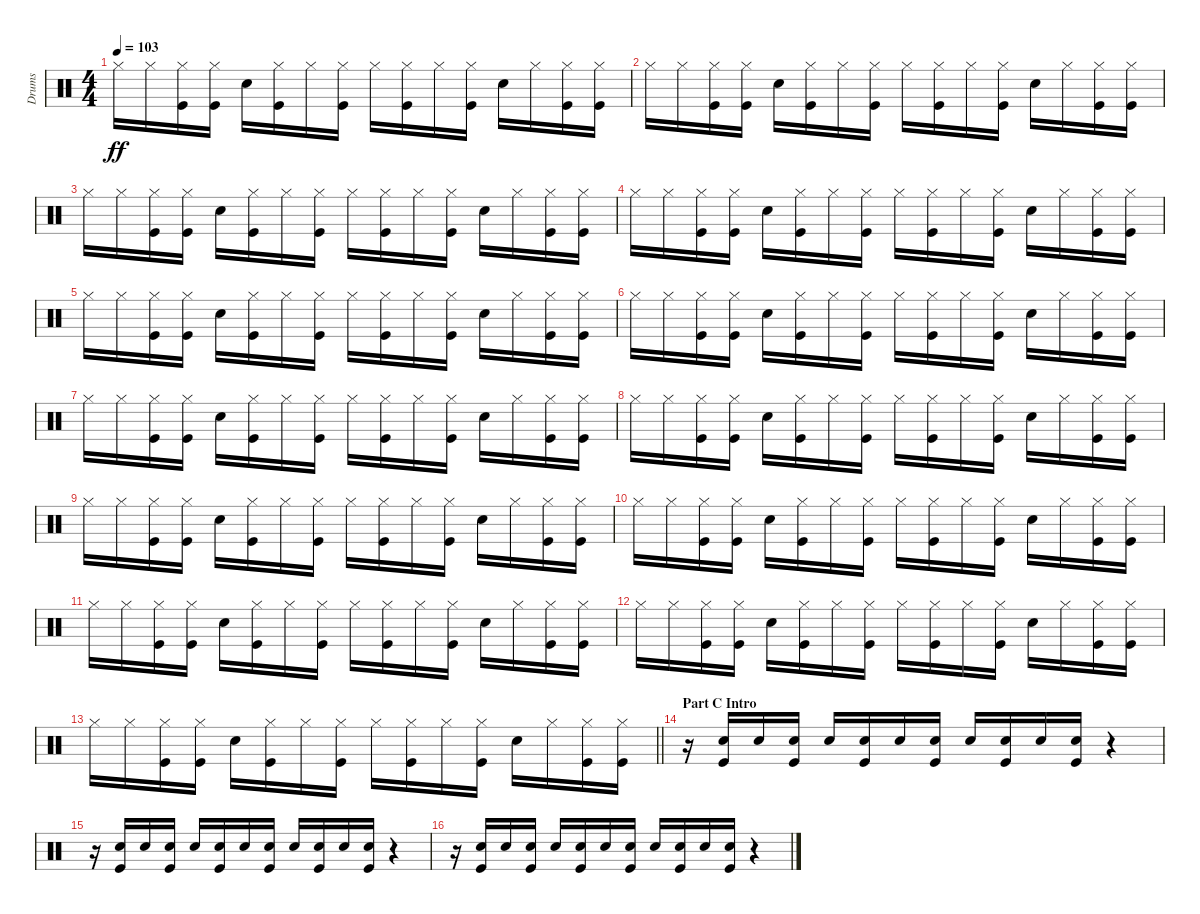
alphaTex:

\track ("Drums" "Drums") {instrument percussion}
\staff {score}
\articulation defaults
\ts (4 4)
\tempo 103
\clef neutral
\ks c "Hi-Hat (closed)".16{dy ff} "Hi-Hat (closed)".16
("Hi-Hat (closed)" "Kick (hit)").16 ("Hi-Hat (closed)" "Kick (hit)").16 "Electric Snare (hit)".16 ("Hi-Hat (closed)" "Kick (hit)").16 "Hi-Hat (closed)".16 ("Hi-Hat (closed)" "Kick (hit)").16 "Hi-Hat (closed)".16 ("Hi-Hat (closed)" "Kick (hit)").16 "Hi-Hat (closed)".16 ("Hi-Hat (closed)" "Kick (hit)").16 "Electric Snare (hit)".16 "Hi-Hat (closed)".16 ("Hi-Hat (closed)" "Kick (hit)").16 ("Hi-Hat (closed)" "Kick (hit)").16 |
"Hi-Hat (closed)".16 "Hi-Hat (closed)".16 ("Hi-Hat (closed)" "Kick (hit)").16 ("Hi-Hat (closed)" "Kick (hit)").16 "Electric Snare (hit)".16 ("Hi-Hat (closed)" "Kick (hit)").16 "Hi-Hat (closed)".16 ("Hi-Hat (closed)" "Kick (hit)").16 "Hi-Hat (closed)".16 ("Hi-Hat (closed)" "Kick (hit)").16 "Hi-Hat (closed)".16 ("Hi-Hat (closed)" "Kick (hit)").16 "Electric Snare (hit)".16 "Hi-Hat (closed)".16 ("Hi-Hat (closed)" "Kick (hit)").16 ("Hi-Hat (closed)" "Kick (hit)").16 |
"Hi-Hat (closed)".16 "Hi-Hat (closed)".16 ("Hi-Hat (closed)" "Kick (hit)").16 ("Hi-Hat (closed)" "Kick (hit)").16 "Electric Snare (hit)".16 ("Hi-Hat (closed)" "Kick (hit)").16 "Hi-Hat (closed)".16 ("Hi-Hat (closed)" "Kick (hit)").16 "Hi-Hat (closed)".16 ("Hi-Hat (closed)" "Kick (hit)").16 "Hi-Hat (closed)".16 ("Hi-Hat (closed)" "Kick (hit)").16 "Electric Snare (hit)".16 "Hi-Hat (closed)".16 ("Hi-Hat (closed)" "Kick (hit)").16 ("Hi-Hat (closed)" "Kick (hit)").16 |
"Hi-Hat (closed)".16 "Hi-Hat (closed)".16 ("Hi-Hat (closed)" "Kick (hit)").16 ("Hi-Hat (closed)" "Kick (hit)").16 "Electric Snare (hit)".16 ("Hi-Hat (closed)" "Kick (hit)").16 "Hi-Hat (closed)".16 ("Hi-Hat (closed)" "Kick (hit)").16 "Hi-Hat (closed)".16 ("Hi-Hat (closed)" "Kick (hit)").16 "Hi-Hat (closed)".16 ("Hi-Hat (closed)" "Kick (hit)").16 "Electric Snare (hit)".16 "Hi-Hat (closed)".16 ("Hi-Hat (closed)" "Kick (hit)").16 ("Hi-Hat (closed)" "Kick (hit)").16 |
"Hi-Hat (closed)".16 "Hi-Hat (closed)".16 ("Hi-Hat (closed)" "Kick (hit)").16 ("Hi-Hat (closed)" "Kick (hit)").16 "Electric Snare (hit)".16 ("Hi-Hat (closed)" "Kick (hit)").16 "Hi-Hat (closed)".16 ("Hi-Hat (closed)" "Kick (hit)").16 "Hi-Hat (closed)".16 ("Hi-Hat (closed)" "Kick (hit)").16 "Hi-Hat (closed)".16 ("Hi-Hat (closed)" "Kick (hit)").16 "Electric Snare (hit)".16 "Hi-Hat (closed)".16 ("Hi-Hat (closed)" "Kick (hit)").16 ("Hi-Hat (closed)" "Kick (hit)").16 |
"Hi-Hat (closed)".16 "Hi-Hat (closed)".16 ("Hi-Hat (closed)" "Kick (hit)").16 ("Hi-Hat (closed)" "Kick (hit)").16 "Electric Snare (hit)".16 ("Hi-Hat (closed)" "Kick (hit)").16 "Hi-Hat (closed)".16 ("Hi-Hat (closed)" "Kick (hit)").16 "Hi-Hat (closed)".16 ("Hi-Hat (closed)" "Kick (hit)").16 "Hi-Hat (closed)".16 ("Hi-Hat (closed)" "Kick (hit)").16 "Electric Snare (hit)".16 "Hi-Hat (closed)".16 ("Hi-Hat (closed)" "Kick (hit)").16 ("Hi-Hat (closed)" "Kick (hit)").16 |
"Hi-Hat (closed)".16 "Hi-Hat (closed)".16 ("Hi-Hat (closed)" "Kick (hit)").16 ("Hi-Hat (closed)" "Kick (hit)").16 "Electric Snare (hit)".16 ("Hi-Hat (closed)" "Kick (hit)").16 "Hi-Hat (closed)".16 ("Hi-Hat (closed)" "Kick (hit)").16 "Hi-Hat (closed)".16 ("Hi-Hat (closed)" "Kick (hit)").16 "Hi-Hat (closed)".16 ("Hi-Hat (closed)" "Kick (hit)").16 "Electric Snare (hit)".16 "Hi-Hat (closed)".16 ("Hi-Hat (closed)" "Kick (hit)").16 ("Hi-Hat (closed)" "Kick (hit)").16 |
"Hi-Hat (closed)".16 "Hi-Hat (closed)".16 ("Hi-Hat (closed)" "Kick (hit)").16 ("Hi-Hat (closed)" "Kick (hit)").16 "Electric Snare (hit)".16 ("Hi-Hat (closed)" "Kick (hit)").16 "Hi-Hat (closed)".16 ("Hi-Hat (closed)" "Kick (hit)").16 "Hi-Hat (closed)".16 ("Hi-Hat (closed)" "Kick (hit)").16 "Hi-Hat (closed)".16 ("Hi-Hat (closed)" "Kick (hit)").16 "Electric Snare (hit)".16 "Hi-Hat (closed)".16 ("Hi-Hat (closed)" "Kick (hit)").16 ("Hi-Hat (closed)" "Kick (hit)").16 |
"Hi-Hat (closed)".16 "Hi-Hat (closed)".16 ("Hi-Hat (closed)" "Kick (hit)").16 ("Hi-Hat (closed)" "Kick (hit)").16 "Electric Snare (hit)".16 ("Hi-Hat (closed)" "Kick (hit)").16 "Hi-Hat (closed)".16 ("Hi-Hat (closed)" "Kick (hit)").16 "Hi-Hat (closed)".16 ("Hi-Hat (closed)" "Kick (hit)").16 "Hi-Hat (closed)".16 ("Hi-Hat (closed)" "Kick (hit)").16 "Electric Snare (hit)".16 "Hi-Hat (closed)".16 ("Hi-Hat (closed)" "Kick (hit)").16 ("Hi-Hat (closed)" "Kick (hit)").16 |
"Hi-Hat (closed)".16 "Hi-Hat (closed)".16 ("Hi-Hat (closed)" "Kick (hit)").16 ("Hi-Hat (closed)" "Kick (hit)").16 "Electric Snare (hit)".16 ("Hi-Hat (closed)" "Kick (hit)").16 "Hi-Hat (closed)".16 ("Hi-Hat (closed)" "Kick (hit)").16 "Hi-Hat (closed)".16 ("Hi-Hat (closed)" "Kick (hit)").16 "Hi-Hat (closed)".16 ("Hi-Hat (closed)" "Kick (hit)").16 "Electric Snare (hit)".16 "Hi-Hat (closed)".16 ("Hi-Hat (closed)" "Kick (hit)").16 ("Hi-Hat (closed)" "Kick (hit)").16 |
"Hi-Hat (closed)".16 "Hi-Hat (closed)".16 ("Hi-Hat (closed)" "Kick (hit)").16 ("Hi-Hat (closed)" "Kick (hit)").16 "Electric Snare (hit)".16 ("Hi-Hat (closed)" "Kick (hit)").16 "Hi-Hat (closed)".16 ("Hi-Hat (closed)" "Kick (hit)").16 "Hi-Hat (closed)".16 ("Hi-Hat (closed)" "Kick (hit)").16 "Hi-Hat (closed)".16 ("Hi-Hat (closed)" "Kick (hit)").16 "Electric Snare (hit)".16 "Hi-Hat (closed)".16 ("Hi-Hat (closed)" "Kick (hit)").16 ("Hi-Hat (closed)" "Kick (hit)").16 |
"Hi-Hat (closed)".16 "Hi-Hat (closed)".16 ("Hi-Hat (closed)" "Kick (hit)").16 ("Hi-Hat (closed)" "Kick (hit)").16 "Electric Snare (hit)".16 ("Hi-Hat (closed)" "Kick (hit)").16 "Hi-Hat (closed)".16 ("Hi-Hat (closed)" "Kick (hit)").16 "Hi-Hat (closed)".16 ("Hi-Hat (closed)" "Kick (hit)").16 "Hi-Hat (closed)".16 ("Hi-Hat (closed)" "Kick (hit)").16 "Electric Snare (hit)".16 "Hi-Hat (closed)".16 ("Hi-Hat (closed)" "Kick (hit)").16 ("Hi-Hat (closed)" "Kick (hit)").16 |
\barLineRight lightlight "Hi-Hat (closed)".16 "Hi-Hat (closed)".16
("Hi-Hat (closed)" "Kick (hit)").16 ("Hi-Hat (closed)" "Kick (hit)").16 "Electric Snare (hit)".16 ("Hi-Hat (closed)" "Kick (hit)").16 "Hi-Hat (closed)".16 ("Hi-Hat (closed)" "Kick (hit)").16 "Hi-Hat (closed)".16 ("Hi-Hat (closed)" "Kick (hit)").16 "Hi-Hat (closed)".16 ("Hi-Hat (closed)" "Kick (hit)").16 "Electric Snare (hit)".16 "Hi-Hat (closed)".16 ("Hi-Hat (closed)" "Kick (hit)").16 ("Hi-Hat (closed)" "Kick (hit)").16 |
\section ("" "Part C Intro")
r.16 ("Electric Snare (hit)" "Kick (hit)").16 "Electric Snare (hit)".16 ("Electric Snare (hit)" "Kick (hit)").16 "Electric Snare (hit)".16 ("Electric Snare (hit)" "Kick (hit)").16 "Electric Snare (hit)".16 ("Electric Snare (hit)" "Kick (hit)").16 "Electric Snare (hit)".16 ("Electric Snare (hit)" "Kick (hit)").16 "Electric Snare (hit)".16 ("Electric Snare (hit)" "Kick (hit)").16 r.4 |
r.16 ("Electric Snare (hit)" "Kick (hit)").16 "Electric Snare (hit)".16 ("Electric Snare (hit)" "Kick (hit)").16 "Electric Snare (hit)".16 ("Electric Snare (hit)" "Kick (hit)").16 "Electric Snare (hit)".16 ("Electric Snare (hit)" "Kick (hit)").16 "Electric Snare (hit)".16 ("Electric Snare (hit)" "Kick (hit)").16 "Electric Snare (hit)".16 ("Electric Snare (hit)" "Kick (hit)").16 r.4 |
r.16 ("Electric Snare (hit)" "Kick (hit)").16 "Electric Snare (hit)".16 ("Electric Snare (hit)" "Kick (hit)").16 "Electric Snare (hit)".16 ("Electric Snare (hit)" "Kick (hit)").16 "Electric Snare (hit)".16 ("Electric Snare (hit)" "Kick (hit)").16 "Electric Snare (hit)".16 ("Electric Snare (hit)" "Kick (hit)").16 "Electric Snare (hit)".16 ("Electric Snare (hit)" "Kick (hit)").16 r.4
